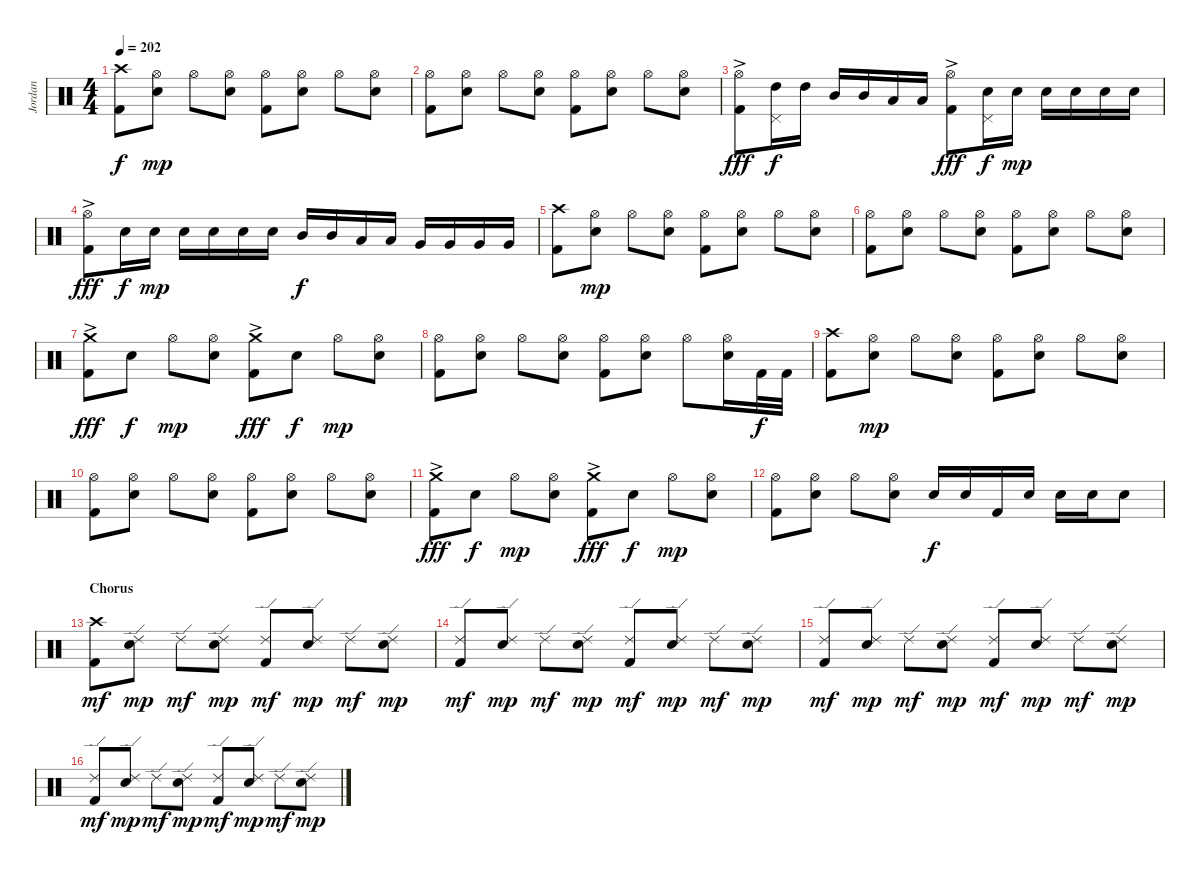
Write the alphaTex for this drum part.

\track ("Jordan" "Jordan") {instrument percussion}
\staff {score}
\articulation defaults
\ts (4 4)
\tempo 202
\clef neutral
\ks c
("Crash high (hit)" "Kick (hit) 2").8{dy f} ("Hi-Hat (open)" "Electric Snare (hit)").8{dy mp} "Hi-Hat (open)".8 ("Hi-Hat (open)" "Electric Snare (hit)").8 ("Hi-Hat (open)" "Kick (hit) 2").8 ("Hi-Hat (open)" "Electric Snare (hit)").8 "Hi-Hat (open)".8 ("Hi-Hat (open)" "Electric Snare (hit)").8 |
("Hi-Hat (open)" "Kick (hit) 2").8 ("Hi-Hat (open)" "Electric Snare (hit)").8 "Hi-Hat (open)".8 ("Hi-Hat (open)" "Electric Snare (hit)").8 ("Hi-Hat (open)" "Kick (hit) 2").8 ("Hi-Hat (open)" "Electric Snare (hit)").8 "Hi-Hat (open)".8 ("Hi-Hat (open)" "Electric Snare (hit)").8 |
("Hi-Hat (open)" "Kick (hit) 2"{ac}).8{dy fff} ("High Tom (hit)" "Pedal Hi-Hat (hit)").16{dy f} "High Tom (hit)".16 "Mid Tom (hit)".16 "Mid Tom (hit)".16 "Low Tom (hit)".16 "Low Tom (hit)".16 ("Hi-Hat (open)" "Kick (hit) 2"{ac}).8{dy fff} ("Electric Snare (hit)" "Pedal Hi-Hat (hit)").16{dy f} "Electric Snare (hit)".16{dy mp} "Electric Snare (hit)".16 "Electric Snare (hit)".16 "Electric Snare (hit)".16 "Electric Snare (hit)".16 |
("Hi-Hat (open)" "Kick (hit) 2"{ac}).8{dy fff} "Electric Snare (hit)".16{dy f} "Electric Snare (hit)".16{dy mp} "Electric Snare (hit)".16 "Electric Snare (hit)".16 "Electric Snare (hit)".16 "Electric Snare (hit)".16 "Mid Tom (hit)".16{dy f} "Mid Tom (hit)".16 "Low Tom (hit)".16 "Low Tom (hit)".16 "Very Low Tom (hit)".16 "Very Low Tom (hit)".16 "Very Low Tom (hit)".16 "Very Low Tom (hit)".16 |
("Crash high (hit)" "Kick (hit) 2").8 ("Hi-Hat (open)" "Electric Snare (hit)").8{dy mp} "Hi-Hat (open)".8 ("Hi-Hat (open)" "Electric Snare (hit)").8 ("Hi-Hat (open)" "Kick (hit) 2").8 ("Hi-Hat (open)" "Electric Snare (hit)").8 "Hi-Hat (open)".8 ("Hi-Hat (open)" "Electric Snare (hit)").8 |
("Hi-Hat (open)" "Kick (hit) 2").8 ("Hi-Hat (open)" "Electric Snare (hit)").8 "Hi-Hat (open)".8 ("Hi-Hat (open)" "Electric Snare (hit)").8 ("Hi-Hat (open)" "Kick (hit) 2").8 ("Hi-Hat (open)" "Electric Snare (hit)").8 "Hi-Hat (open)".8 ("Hi-Hat (open)" "Electric Snare (hit)").8 |
("Crash medium (hit)" "Kick (hit) 2"{ac}).8{dy fff} "Electric Snare (hit)".8{dy f} "Hi-Hat (open)".8{dy mp} ("Hi-Hat (open)" "Electric Snare (hit)").8 ("Crash medium (hit)" "Kick (hit) 2"{ac}).8{dy fff} "Electric Snare (hit)".8{dy f} "Hi-Hat (open)".8{dy mp} ("Hi-Hat (open)" "Electric Snare (hit)").8 |
("Hi-Hat (open)" "Kick (hit) 2").8 ("Hi-Hat (open)" "Electric Snare (hit)").8 "Hi-Hat (open)".8 ("Hi-Hat (open)" "Electric Snare (hit)").8 ("Hi-Hat (open)" "Kick (hit) 2").8 ("Hi-Hat (open)" "Electric Snare (hit)").8 "Hi-Hat (open)".8 ("Hi-Hat (open)" "Electric Snare (hit)").16 "Kick (hit) 2".32{dy f} "Kick (hit) 2".32 |
("Crash high (hit)" "Kick (hit) 2").8 ("Hi-Hat (open)" "Electric Snare (hit)").8{dy mp} "Hi-Hat (open)".8 ("Hi-Hat (open)" "Electric Snare (hit)").8 ("Hi-Hat (open)" "Kick (hit) 2").8 ("Hi-Hat (open)" "Electric Snare (hit)").8 "Hi-Hat (open)".8 ("Hi-Hat (open)" "Electric Snare (hit)").8 |
("Hi-Hat (open)" "Kick (hit) 2").8 ("Hi-Hat (open)" "Electric Snare (hit)").8 "Hi-Hat (open)".8 ("Hi-Hat (open)" "Electric Snare (hit)").8 ("Hi-Hat (open)" "Kick (hit) 2").8 ("Hi-Hat (open)" "Electric Snare (hit)").8 "Hi-Hat (open)".8 ("Hi-Hat (open)" "Electric Snare (hit)").8 |
("Crash medium (hit)" "Kick (hit) 2"{ac}).8{dy fff} "Electric Snare (hit)".8{dy f} "Hi-Hat (open)".8{dy mp} ("Hi-Hat (open)" "Electric Snare (hit)").8 ("Crash medium (hit)" "Kick (hit) 2"{ac}).8{dy fff} "Electric Snare (hit)".8{dy f} "Hi-Hat (open)".8{dy mp} ("Hi-Hat (open)" "Electric Snare (hit)").8 |
("Hi-Hat (open)" "Kick (hit) 2").8 ("Hi-Hat (open)" "Electric Snare (hit)").8 "Hi-Hat (open)".8 ("Hi-Hat (open)" "Electric Snare (hit)").8 "Electric Snare (hit)".16{dy f} "Electric Snare (hit)".16 "Kick (hit) 2".16 "Electric Snare (hit)".16 "Electric Snare (hit)".16 "Electric Snare (hit)".16 "Electric Snare (hit)".8 |
\section ("" "Chorus")
("Crash high (hit)" "Kick (hit) 2").8{dy mf} ("Ride (edge) 2" "Electric Snare (hit)").8{dy mp} "Ride (edge) 2".8{dy mf} ("Ride (edge) 2" "Electric Snare (hit)").8{dy mp} ("Ride (edge) 2" "Kick (hit) 2").8{dy mf} ("Ride (edge) 2" "Electric Snare (hit)").8{dy mp} "Ride (edge) 2".8{dy mf} ("Ride (edge) 2" "Electric Snare (hit)").8{dy mp} |
("Ride (edge) 2" "Kick (hit) 2").8{dy mf} ("Ride (edge) 2" "Electric Snare (hit)").8{dy mp} "Ride (edge) 2".8{dy mf} ("Ride (edge) 2" "Electric Snare (hit)").8{dy mp} ("Ride (edge) 2" "Kick (hit) 2").8{dy mf} ("Ride (edge) 2" "Electric Snare (hit)").8{dy mp} "Ride (edge) 2".8{dy mf} ("Ride (edge) 2" "Electric Snare (hit)").8{dy mp} |
("Ride (edge) 2" "Kick (hit) 2").8{dy mf} ("Ride (edge) 2" "Electric Snare (hit)").8{dy mp} "Ride (edge) 2".8{dy mf} ("Ride (edge) 2" "Electric Snare (hit)").8{dy mp} ("Ride (edge) 2" "Kick (hit) 2").8{dy mf} ("Ride (edge) 2" "Electric Snare (hit)").8{dy mp} "Ride (edge) 2".8{dy mf} ("Ride (edge) 2" "Electric Snare (hit)").8{dy mp} |
("Ride (edge) 2" "Kick (hit) 2").8{dy mf} ("Ride (edge) 2" "Electric Snare (hit)").8{dy mp} "Ride (edge) 2".8{dy mf} ("Ride (edge) 2" "Electric Snare (hit)").8{dy mp} ("Ride (edge) 2" "Kick (hit) 2").8{dy mf} ("Ride (edge) 2" "Electric Snare (hit)").8{dy mp} "Ride (edge) 2".8{dy mf} ("Ride (edge) 2" "Electric Snare (hit)").8{dy mp}
